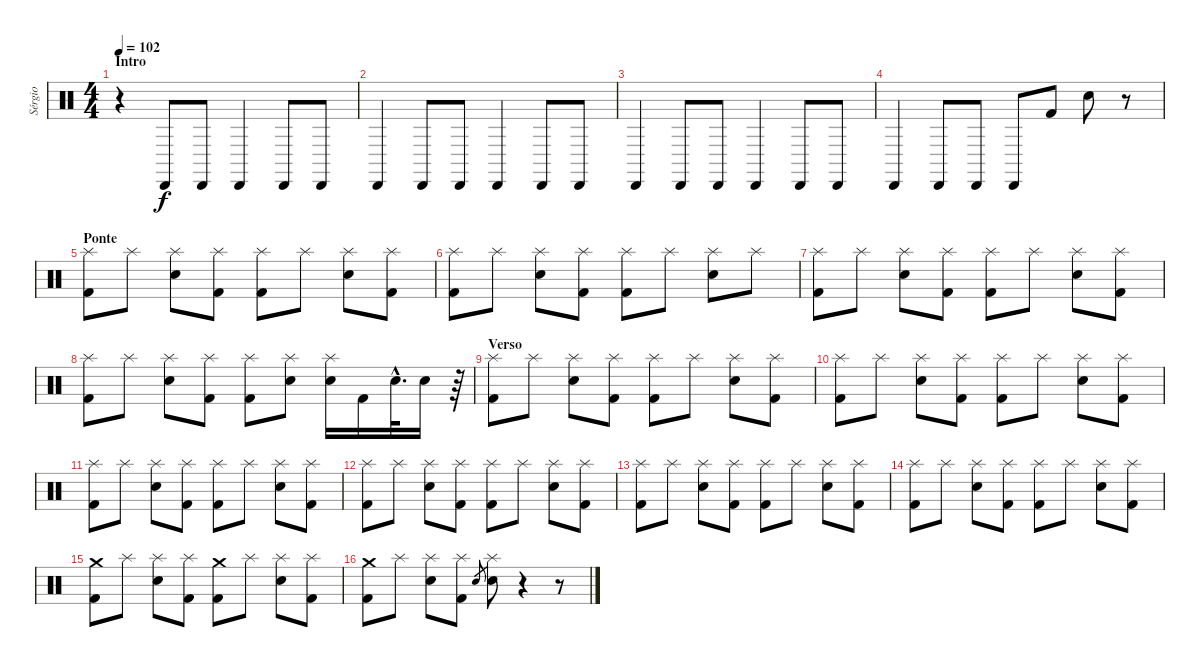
\track ("Sérgio" "Sérgio") {instrument percussion}
\staff {score}
\articulation defaults
\ts (4 4)
\section ("" "Intro")
\tempo 102
\clef neutral
\ks c
r.4{dy f} "Cabasa (hit)".8 "Cabasa (hit)".8 "Cabasa (hit)".4 "Cabasa (hit)".8 "Cabasa (hit)".8 |
"Cabasa (hit)".4 "Cabasa (hit)".8 "Cabasa (hit)".8 "Cabasa (hit)".4 "Cabasa (hit)".8 "Cabasa (hit)".8 |
"Cabasa (hit)".4 "Cabasa (hit)".8 "Cabasa (hit)".8 "Cabasa (hit)".4 "Cabasa (hit)".8 "Cabasa (hit)".8 |
"Cabasa (hit)".4 "Cabasa (hit)".8 "Cabasa (hit)".8 "Cabasa (hit)".8 "Kick (hit) 2".8 "Snare (hit) 2".8 r.8 |
\section ("" "Ponte")
("Splash (hit)" "Kick (hit) 2").8 "Splash (hit)".8 ("Splash (hit)" "Snare (hit) 2").8 ("Splash (hit)" "Kick (hit) 2").8 ("Splash (hit)" "Kick (hit) 2").8 "Splash (hit)".8 ("Splash (hit)" "Snare (hit) 2").8 ("Splash (hit)" "Kick (hit) 2").8 |
("Splash (hit)" "Kick (hit) 2").8 "Splash (hit)".8 ("Splash (hit)" "Snare (hit) 2").8 ("Splash (hit)" "Kick (hit) 2").8 ("Splash (hit)" "Kick (hit) 2").8 "Splash (hit)".8 ("Splash (hit)" "Snare (hit) 2").8 "Splash (hit)".8 |
("Splash (hit)" "Kick (hit) 2").8 "Splash (hit)".8 ("Splash (hit)" "Snare (hit) 2").8 ("Splash (hit)" "Kick (hit) 2").8 ("Splash (hit)" "Kick (hit) 2").8 "Splash (hit)".8 ("Splash (hit)" "Snare (hit) 2").8 ("Splash (hit)" "Kick (hit) 2").8 |
("Splash (hit)" "Kick (hit) 2").8 "Splash (hit)".8 ("Splash (hit)" "Snare (hit) 2").8 ("Splash (hit)" "Kick (hit) 2").8 ("Splash (hit)" "Kick (hit) 2").8 ("Splash (hit)" "Snare (hit) 2").8 ("Splash (hit)" "Snare (hit) 2").16 "Kick (hit) 2".16 "Snare (hit) 2"{hac}.32{d} "Snare (hit) 2".16 r.64 |
\section ("" "Verso")
("Splash (hit)" "Kick (hit) 2").8 "Splash (hit)".8 ("Splash (hit)" "Snare (hit) 2").8 ("Splash (hit)" "Kick (hit) 2").8 ("Splash (hit)" "Kick (hit) 2").8 "Splash (hit)".8 ("Splash (hit)" "Snare (hit) 2").8 ("Splash (hit)" "Kick (hit) 2").8 |
("Splash (hit)" "Kick (hit) 2").8 "Splash (hit)".8 ("Splash (hit)" "Snare (hit) 2").8 ("Splash (hit)" "Kick (hit) 2").8 ("Splash (hit)" "Kick (hit) 2").8 "Splash (hit)".8 ("Splash (hit)" "Snare (hit) 2").8 ("Splash (hit)" "Kick (hit) 2").8 |
("Splash (hit)" "Kick (hit) 2").8 "Splash (hit)".8 ("Splash (hit)" "Snare (hit) 2").8 ("Splash (hit)" "Kick (hit) 2").8 ("Splash (hit)" "Kick (hit) 2").8 "Splash (hit)".8 ("Splash (hit)" "Snare (hit) 2").8 ("Splash (hit)" "Kick (hit) 2").8 |
("Splash (hit)" "Kick (hit) 2").8 "Splash (hit)".8 ("Splash (hit)" "Snare (hit) 2").8 ("Splash (hit)" "Kick (hit) 2").8 ("Splash (hit)" "Kick (hit) 2").8 "Splash (hit)".8 ("Splash (hit)" "Snare (hit) 2").8 ("Splash (hit)" "Kick (hit) 2").8 |
("Splash (hit)" "Kick (hit) 2").8 "Splash (hit)".8 ("Splash (hit)" "Snare (hit) 2").8 ("Splash (hit)" "Kick (hit) 2").8 ("Splash (hit)" "Kick (hit) 2").8 "Splash (hit)".8 ("Splash (hit)" "Snare (hit) 2").8 ("Splash (hit)" "Kick (hit) 2").8 |
("Splash (hit)" "Kick (hit) 2").8 "Splash (hit)".8 ("Splash (hit)" "Snare (hit) 2").8 ("Splash (hit)" "Kick (hit) 2").8 ("Splash (hit)" "Kick (hit) 2").8 "Splash (hit)".8 ("Splash (hit)" "Snare (hit) 2").8 ("Splash (hit)" "Kick (hit) 2").8 |
("Crash medium (hit)" "Kick (hit) 2").8 "Splash (hit)".8 ("Splash (hit)" "Snare (hit) 2").8 ("Splash (hit)" "Kick (hit) 2").8 ("Crash medium (hit)" "Kick (hit) 2").8 "Splash (hit)".8 ("Splash (hit)" "Snare (hit) 2").8 ("Splash (hit)" "Kick (hit) 2").8 |
("Crash medium (hit)" "Kick (hit) 2").8 "Splash (hit)".8 ("Splash (hit)" "Snare (hit) 2").8 ("Splash (hit)" "Kick (hit) 2").8 "Snare (hit) 2".8{gr} ("Splash (hit)" "Snare (hit) 2").8 r.4 r.8
